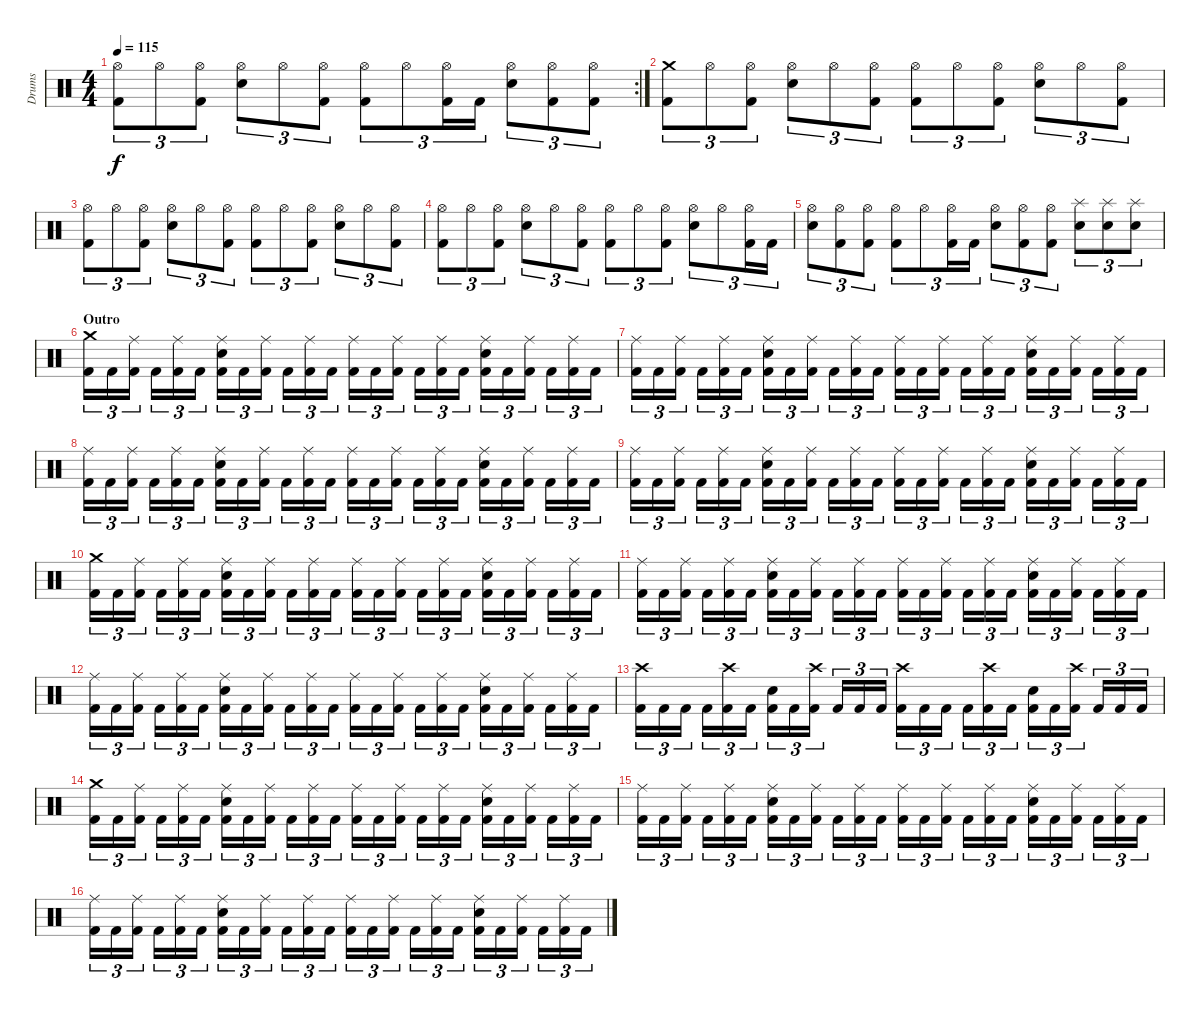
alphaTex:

\track ("Drums" "Drums") {instrument percussion}
\staff {score}
\articulation defaults
\rc 2
\ts (4 4)
\tempo 115
\clef neutral
\ks c
("Kick (hit) 2" "Hi-Hat (open)").8{tu (3 2) dy f} "Hi-Hat (open)".8{tu (3 2)} ("Kick (hit) 2" "Hi-Hat (open)").8{tu (3 2)} ("Electric Snare (hit)" "Hi-Hat (open)").8{tu (3 2)} "Hi-Hat (open)".8{tu (3 2)} ("Kick (hit) 2" "Hi-Hat (open)").8{tu (3 2)} ("Kick (hit) 2" "Hi-Hat (open)").8{tu (3 2)} "Hi-Hat (open)".8{tu (3 2)} ("Kick (hit) 2" "Hi-Hat (open)").16{tu (3 2)} "Kick (hit) 2".16{tu (3 2)} ("Electric Snare (hit)" "Hi-Hat (open)").8{tu (3 2)} ("Kick (hit) 2" "Hi-Hat (open)").8{tu (3 2)} ("Kick (hit) 2" "Hi-Hat (open)").8{tu (3 2)} |
("Kick (hit) 2" "Crash medium (hit)").8{tu (3 2)} "Hi-Hat (open)".8{tu (3 2)} ("Kick (hit) 2" "Hi-Hat (open)").8{tu (3 2)} ("Electric Snare (hit)" "Hi-Hat (open)").8{tu (3 2)} "Hi-Hat (open)".8{tu (3 2)} ("Kick (hit) 2" "Hi-Hat (open)").8{tu (3 2)} ("Kick (hit) 2" "Hi-Hat (open)").8{tu (3 2)} "Hi-Hat (open)".8{tu (3 2)} ("Kick (hit) 2" "Hi-Hat (open)").8{tu (3 2)} ("Electric Snare (hit)" "Hi-Hat (open)").8{tu (3 2)} "Hi-Hat (open)".8{tu (3 2)} ("Kick (hit) 2" "Hi-Hat (open)").8{tu (3 2)} |
("Kick (hit) 2" "Hi-Hat (open)").8{tu (3 2)} "Hi-Hat (open)".8{tu (3 2)} ("Kick (hit) 2" "Hi-Hat (open)").8{tu (3 2)} ("Electric Snare (hit)" "Hi-Hat (open)").8{tu (3 2)} "Hi-Hat (open)".8{tu (3 2)} ("Kick (hit) 2" "Hi-Hat (open)").8{tu (3 2)} ("Kick (hit) 2" "Hi-Hat (open)").8{tu (3 2)} "Hi-Hat (open)".8{tu (3 2)} ("Kick (hit) 2" "Hi-Hat (open)").8{tu (3 2)} ("Electric Snare (hit)" "Hi-Hat (open)").8{tu (3 2)} "Hi-Hat (open)".8{tu (3 2)} ("Kick (hit) 2" "Hi-Hat (open)").8{tu (3 2)} |
("Kick (hit) 2" "Hi-Hat (open)").8{tu (3 2)} "Hi-Hat (open)".8{tu (3 2)} ("Kick (hit) 2" "Hi-Hat (open)").8{tu (3 2)} ("Electric Snare (hit)" "Hi-Hat (open)").8{tu (3 2)} "Hi-Hat (open)".8{tu (3 2)} ("Kick (hit) 2" "Hi-Hat (open)").8{tu (3 2)} ("Kick (hit) 2" "Hi-Hat (open)").8{tu (3 2)} "Hi-Hat (open)".8{tu (3 2)} ("Kick (hit) 2" "Hi-Hat (open)").8{tu (3 2)} ("Electric Snare (hit)" "Hi-Hat (open)").8{tu (3 2)} "Hi-Hat (open)".8{tu (3 2)} ("Kick (hit) 2" "Hi-Hat (open)").16{tu (3 2)} "Kick (hit) 2".16{tu (3 2)} |
("Electric Snare (hit)" "Hi-Hat (open)").8{tu (3 2)} ("Kick (hit) 2" "Hi-Hat (open)").8{tu (3 2)} ("Kick (hit) 2" "Hi-Hat (open)").8{tu (3 2)} ("Kick (hit) 2" "Hi-Hat (open)").8{tu (3 2)} "Hi-Hat (open)".8{tu (3 2)} ("Kick (hit) 2" "Hi-Hat (open)").16{tu (3 2)} "Kick (hit) 2".16{tu (3 2)} ("Electric Snare (hit)" "Hi-Hat (open)").8{tu (3 2)} ("Kick (hit) 2" "Hi-Hat (open)").8{tu (3 2)} ("Kick (hit) 2" "Hi-Hat (open)").8{tu (3 2)} ("Electric Snare (hit)" "Splash (hit)").8{tu (3 2)} ("Electric Snare (hit)" "Splash (hit)").8{tu (3 2)} ("Electric Snare (hit)" "Splash (hit)").8{tu (3 2)} |
\section ("" "Outro")
("Kick (hit) 2" "Crash medium (hit)").16{tu (3 2)} "Kick (hit) 2".16{tu (3 2)} ("Kick (hit) 2" "Ride (middle)").16{tu (3 2)} "Kick (hit) 2".16{tu (3 2)} ("Kick (hit) 2" "Ride (middle)").16{tu (3 2)} "Kick (hit) 2".16{tu (3 2)} ("Kick (hit) 2" "Electric Snare (hit)" "Ride (middle)").16{tu (3 2)} "Kick (hit) 2".16{tu (3 2)} ("Kick (hit) 2" "Ride (middle)").16{tu (3 2)} "Kick (hit) 2".16{tu (3 2)} ("Kick (hit) 2" "Ride (middle)").16{tu (3 2)} "Kick (hit) 2".16{tu (3 2)} ("Kick (hit) 2" "Ride (middle)").16{tu (3 2)} "Kick (hit) 2".16{tu (3 2)} ("Kick (hit) 2" "Ride (middle)").16{tu (3 2)} "Kick (hit) 2".16{tu (3 2)} ("Kick (hit) 2" "Ride (middle)").16{tu (3 2)} "Kick (hit) 2".16{tu (3 2)} ("Kick (hit) 2" "Electric Snare (hit)" "Ride (middle)").16{tu (3 2)} "Kick (hit) 2".16{tu (3 2)} ("Kick (hit) 2" "Ride (middle)").16{tu (3 2)} "Kick (hit) 2".16{tu (3 2)} ("Kick (hit) 2" "Ride (middle)").16{tu (3 2)} "Kick (hit) 2".16{tu (3 2)} |
("Kick (hit) 2" "Ride (middle)").16{tu (3 2)} "Kick (hit) 2".16{tu (3 2)} ("Kick (hit) 2" "Ride (middle)").16{tu (3 2)} "Kick (hit) 2".16{tu (3 2)} ("Kick (hit) 2" "Ride (middle)").16{tu (3 2)} "Kick (hit) 2".16{tu (3 2)} ("Kick (hit) 2" "Electric Snare (hit)" "Ride (middle)").16{tu (3 2)} "Kick (hit) 2".16{tu (3 2)} ("Kick (hit) 2" "Ride (middle)").16{tu (3 2)} "Kick (hit) 2".16{tu (3 2)} ("Kick (hit) 2" "Ride (middle)").16{tu (3 2)} "Kick (hit) 2".16{tu (3 2)} ("Kick (hit) 2" "Ride (middle)").16{tu (3 2)} "Kick (hit) 2".16{tu (3 2)} ("Kick (hit) 2" "Ride (middle)").16{tu (3 2)} "Kick (hit) 2".16{tu (3 2)} ("Kick (hit) 2" "Ride (middle)").16{tu (3 2)} "Kick (hit) 2".16{tu (3 2)} ("Kick (hit) 2" "Electric Snare (hit)" "Ride (middle)").16{tu (3 2)} "Kick (hit) 2".16{tu (3 2)} ("Kick (hit) 2" "Ride (middle)").16{tu (3 2)} "Kick (hit) 2".16{tu (3 2)} ("Kick (hit) 2" "Ride (middle)").16{tu (3 2)} "Kick (hit) 2".16{tu (3 2)} |
("Kick (hit) 2" "Ride (middle)").16{tu (3 2)} "Kick (hit) 2".16{tu (3 2)} ("Kick (hit) 2" "Ride (middle)").16{tu (3 2)} "Kick (hit) 2".16{tu (3 2)} ("Kick (hit) 2" "Ride (middle)").16{tu (3 2)} "Kick (hit) 2".16{tu (3 2)} ("Kick (hit) 2" "Electric Snare (hit)" "Ride (middle)").16{tu (3 2)} "Kick (hit) 2".16{tu (3 2)} ("Kick (hit) 2" "Ride (middle)").16{tu (3 2)} "Kick (hit) 2".16{tu (3 2)} ("Kick (hit) 2" "Ride (middle)").16{tu (3 2)} "Kick (hit) 2".16{tu (3 2)} ("Kick (hit) 2" "Ride (middle)").16{tu (3 2)} "Kick (hit) 2".16{tu (3 2)} ("Kick (hit) 2" "Ride (middle)").16{tu (3 2)} "Kick (hit) 2".16{tu (3 2)} ("Kick (hit) 2" "Ride (middle)").16{tu (3 2)} "Kick (hit) 2".16{tu (3 2)} ("Kick (hit) 2" "Electric Snare (hit)" "Ride (middle)").16{tu (3 2)} "Kick (hit) 2".16{tu (3 2)} ("Kick (hit) 2" "Ride (middle)").16{tu (3 2)} "Kick (hit) 2".16{tu (3 2)} ("Kick (hit) 2" "Ride (middle)").16{tu (3 2)} "Kick (hit) 2".16{tu (3 2)} |
("Kick (hit) 2" "Ride (middle)").16{tu (3 2)} "Kick (hit) 2".16{tu (3 2)} ("Kick (hit) 2" "Ride (middle)").16{tu (3 2)} "Kick (hit) 2".16{tu (3 2)} ("Kick (hit) 2" "Ride (middle)").16{tu (3 2)} "Kick (hit) 2".16{tu (3 2)} ("Kick (hit) 2" "Electric Snare (hit)" "Ride (middle)").16{tu (3 2)} "Kick (hit) 2".16{tu (3 2)} ("Kick (hit) 2" "Ride (middle)").16{tu (3 2)} "Kick (hit) 2".16{tu (3 2)} ("Kick (hit) 2" "Ride (middle)").16{tu (3 2)} "Kick (hit) 2".16{tu (3 2)} ("Kick (hit) 2" "Ride (middle)").16{tu (3 2)} "Kick (hit) 2".16{tu (3 2)} ("Kick (hit) 2" "Ride (middle)").16{tu (3 2)} "Kick (hit) 2".16{tu (3 2)} ("Kick (hit) 2" "Ride (middle)").16{tu (3 2)} "Kick (hit) 2".16{tu (3 2)} ("Kick (hit) 2" "Electric Snare (hit)" "Ride (middle)").16{tu (3 2)} "Kick (hit) 2".16{tu (3 2)} ("Kick (hit) 2" "Ride (middle)").16{tu (3 2)} "Kick (hit) 2".16{tu (3 2)} ("Kick (hit) 2" "Ride (middle)").16{tu (3 2)} "Kick (hit) 2".16{tu (3 2)} |
("Kick (hit) 2" "Crash medium (hit)").16{tu (3 2)} "Kick (hit) 2".16{tu (3 2)} ("Kick (hit) 2" "Ride (middle)").16{tu (3 2)} "Kick (hit) 2".16{tu (3 2)} ("Kick (hit) 2" "Ride (middle)").16{tu (3 2)} "Kick (hit) 2".16{tu (3 2)} ("Kick (hit) 2" "Electric Snare (hit)" "Ride (middle)").16{tu (3 2)} "Kick (hit) 2".16{tu (3 2)} ("Kick (hit) 2" "Ride (middle)").16{tu (3 2)} "Kick (hit) 2".16{tu (3 2)} ("Kick (hit) 2" "Ride (middle)").16{tu (3 2)} "Kick (hit) 2".16{tu (3 2)} ("Kick (hit) 2" "Ride (middle)").16{tu (3 2)} "Kick (hit) 2".16{tu (3 2)} ("Kick (hit) 2" "Ride (middle)").16{tu (3 2)} "Kick (hit) 2".16{tu (3 2)} ("Kick (hit) 2" "Ride (middle)").16{tu (3 2)} "Kick (hit) 2".16{tu (3 2)} ("Kick (hit) 2" "Electric Snare (hit)" "Ride (middle)").16{tu (3 2)} "Kick (hit) 2".16{tu (3 2)} ("Kick (hit) 2" "Ride (middle)").16{tu (3 2)} "Kick (hit) 2".16{tu (3 2)} ("Kick (hit) 2" "Ride (middle)").16{tu (3 2)} "Kick (hit) 2".16{tu (3 2)} |
("Kick (hit) 2" "Ride (middle)").16{tu (3 2)} "Kick (hit) 2".16{tu (3 2)} ("Kick (hit) 2" "Ride (middle)").16{tu (3 2)} "Kick (hit) 2".16{tu (3 2)} ("Kick (hit) 2" "Ride (middle)").16{tu (3 2)} "Kick (hit) 2".16{tu (3 2)} ("Kick (hit) 2" "Electric Snare (hit)" "Ride (middle)").16{tu (3 2)} "Kick (hit) 2".16{tu (3 2)} ("Kick (hit) 2" "Ride (middle)").16{tu (3 2)} "Kick (hit) 2".16{tu (3 2)} ("Kick (hit) 2" "Ride (middle)").16{tu (3 2)} "Kick (hit) 2".16{tu (3 2)} ("Kick (hit) 2" "Ride (middle)").16{tu (3 2)} "Kick (hit) 2".16{tu (3 2)} ("Kick (hit) 2" "Ride (middle)").16{tu (3 2)} "Kick (hit) 2".16{tu (3 2)} ("Kick (hit) 2" "Ride (middle)").16{tu (3 2)} "Kick (hit) 2".16{tu (3 2)} ("Kick (hit) 2" "Electric Snare (hit)" "Ride (middle)").16{tu (3 2)} "Kick (hit) 2".16{tu (3 2)} ("Kick (hit) 2" "Ride (middle)").16{tu (3 2)} "Kick (hit) 2".16{tu (3 2)} ("Kick (hit) 2" "Ride (middle)").16{tu (3 2)} "Kick (hit) 2".16{tu (3 2)} |
("Kick (hit) 2" "Ride (middle)").16{tu (3 2)} "Kick (hit) 2".16{tu (3 2)} ("Kick (hit) 2" "Ride (middle)").16{tu (3 2)} "Kick (hit) 2".16{tu (3 2)} ("Kick (hit) 2" "Ride (middle)").16{tu (3 2)} "Kick (hit) 2".16{tu (3 2)} ("Kick (hit) 2" "Electric Snare (hit)" "Ride (middle)").16{tu (3 2)} "Kick (hit) 2".16{tu (3 2)} ("Kick (hit) 2" "Ride (middle)").16{tu (3 2)} "Kick (hit) 2".16{tu (3 2)} ("Kick (hit) 2" "Ride (middle)").16{tu (3 2)} "Kick (hit) 2".16{tu (3 2)} ("Kick (hit) 2" "Ride (middle)").16{tu (3 2)} "Kick (hit) 2".16{tu (3 2)} ("Kick (hit) 2" "Ride (middle)").16{tu (3 2)} "Kick (hit) 2".16{tu (3 2)} ("Kick (hit) 2" "Ride (middle)").16{tu (3 2)} "Kick (hit) 2".16{tu (3 2)} ("Kick (hit) 2" "Electric Snare (hit)" "Ride (middle)").16{tu (3 2)} "Kick (hit) 2".16{tu (3 2)} ("Kick (hit) 2" "Ride (middle)").16{tu (3 2)} "Kick (hit) 2".16{tu (3 2)} ("Kick (hit) 2" "Ride (middle)").16{tu (3 2)} "Kick (hit) 2".16{tu (3 2)} |
("Kick (hit) 2" "Crash high (hit)").16{tu (3 2)} "Kick (hit) 2".16{tu (3 2)} "Kick (hit) 2".16{tu (3 2)} "Kick (hit) 2".16{tu (3 2)} ("Kick (hit) 2" "Crash high (hit)").16{tu (3 2)} "Kick (hit) 2".16{tu (3 2)} ("Kick (hit) 2" "Electric Snare (hit)").16{tu (3 2)} "Kick (hit) 2".16{tu (3 2)} ("Kick (hit) 2" "Crash high (hit)").16{tu (3 2)} "Kick (hit) 2".16{tu (3 2)} "Kick (hit) 2".16{tu (3 2)} "Kick (hit) 2".16{tu (3 2)} ("Kick (hit) 2" "Crash high (hit)").16{tu (3 2)} "Kick (hit) 2".16{tu (3 2)} "Kick (hit) 2".16{tu (3 2)} "Kick (hit) 2".16{tu (3 2)} ("Kick (hit) 2" "Crash high (hit)").16{tu (3 2)} "Kick (hit) 2".16{tu (3 2)} ("Kick (hit) 2" "Electric Snare (hit)").16{tu (3 2)} "Kick (hit) 2".16{tu (3 2)} ("Kick (hit) 2" "Crash high (hit)").16{tu (3 2)} "Kick (hit) 2".16{tu (3 2)} "Kick (hit) 2".16{tu (3 2)} "Kick (hit) 2".16{tu (3 2)} |
("Kick (hit) 2" "Crash medium (hit)").16{tu (3 2)} "Kick (hit) 2".16{tu (3 2)} ("Kick (hit) 2" "Ride (middle)").16{tu (3 2)} "Kick (hit) 2".16{tu (3 2)} ("Kick (hit) 2" "Ride (middle)").16{tu (3 2)} "Kick (hit) 2".16{tu (3 2)} ("Kick (hit) 2" "Electric Snare (hit)" "Ride (middle)").16{tu (3 2)} "Kick (hit) 2".16{tu (3 2)} ("Kick (hit) 2" "Ride (middle)").16{tu (3 2)} "Kick (hit) 2".16{tu (3 2)} ("Kick (hit) 2" "Ride (middle)").16{tu (3 2)} "Kick (hit) 2".16{tu (3 2)} ("Kick (hit) 2" "Ride (middle)").16{tu (3 2)} "Kick (hit) 2".16{tu (3 2)} ("Kick (hit) 2" "Ride (middle)").16{tu (3 2)} "Kick (hit) 2".16{tu (3 2)} ("Kick (hit) 2" "Ride (middle)").16{tu (3 2)} "Kick (hit) 2".16{tu (3 2)} ("Kick (hit) 2" "Electric Snare (hit)" "Ride (middle)").16{tu (3 2)} "Kick (hit) 2".16{tu (3 2)} ("Kick (hit) 2" "Ride (middle)").16{tu (3 2)} "Kick (hit) 2".16{tu (3 2)} ("Kick (hit) 2" "Ride (middle)").16{tu (3 2)} "Kick (hit) 2".16{tu (3 2)} |
("Kick (hit) 2" "Ride (middle)").16{tu (3 2)} "Kick (hit) 2".16{tu (3 2)} ("Kick (hit) 2" "Ride (middle)").16{tu (3 2)} "Kick (hit) 2".16{tu (3 2)} ("Kick (hit) 2" "Ride (middle)").16{tu (3 2)} "Kick (hit) 2".16{tu (3 2)} ("Kick (hit) 2" "Electric Snare (hit)" "Ride (middle)").16{tu (3 2)} "Kick (hit) 2".16{tu (3 2)} ("Kick (hit) 2" "Ride (middle)").16{tu (3 2)} "Kick (hit) 2".16{tu (3 2)} ("Kick (hit) 2" "Ride (middle)").16{tu (3 2)} "Kick (hit) 2".16{tu (3 2)} ("Kick (hit) 2" "Ride (middle)").16{tu (3 2)} "Kick (hit) 2".16{tu (3 2)} ("Kick (hit) 2" "Ride (middle)").16{tu (3 2)} "Kick (hit) 2".16{tu (3 2)} ("Kick (hit) 2" "Ride (middle)").16{tu (3 2)} "Kick (hit) 2".16{tu (3 2)} ("Kick (hit) 2" "Electric Snare (hit)" "Ride (middle)").16{tu (3 2)} "Kick (hit) 2".16{tu (3 2)} ("Kick (hit) 2" "Ride (middle)").16{tu (3 2)} "Kick (hit) 2".16{tu (3 2)} ("Kick (hit) 2" "Ride (middle)").16{tu (3 2)} "Kick (hit) 2".16{tu (3 2)} |
("Kick (hit) 2" "Ride (middle)").16{tu (3 2)} "Kick (hit) 2".16{tu (3 2)} ("Kick (hit) 2" "Ride (middle)").16{tu (3 2)} "Kick (hit) 2".16{tu (3 2)} ("Kick (hit) 2" "Ride (middle)").16{tu (3 2)} "Kick (hit) 2".16{tu (3 2)} ("Kick (hit) 2" "Electric Snare (hit)" "Ride (middle)").16{tu (3 2)} "Kick (hit) 2".16{tu (3 2)} ("Kick (hit) 2" "Ride (middle)").16{tu (3 2)} "Kick (hit) 2".16{tu (3 2)} ("Kick (hit) 2" "Ride (middle)").16{tu (3 2)} "Kick (hit) 2".16{tu (3 2)} ("Kick (hit) 2" "Ride (middle)").16{tu (3 2)} "Kick (hit) 2".16{tu (3 2)} ("Kick (hit) 2" "Ride (middle)").16{tu (3 2)} "Kick (hit) 2".16{tu (3 2)} ("Kick (hit) 2" "Ride (middle)").16{tu (3 2)} "Kick (hit) 2".16{tu (3 2)} ("Kick (hit) 2" "Electric Snare (hit)" "Ride (middle)").16{tu (3 2)} "Kick (hit) 2".16{tu (3 2)} ("Kick (hit) 2" "Ride (middle)").16{tu (3 2)} "Kick (hit) 2".16{tu (3 2)} ("Kick (hit) 2" "Ride (middle)").16{tu (3 2)} "Kick (hit) 2".16{tu (3 2)}
